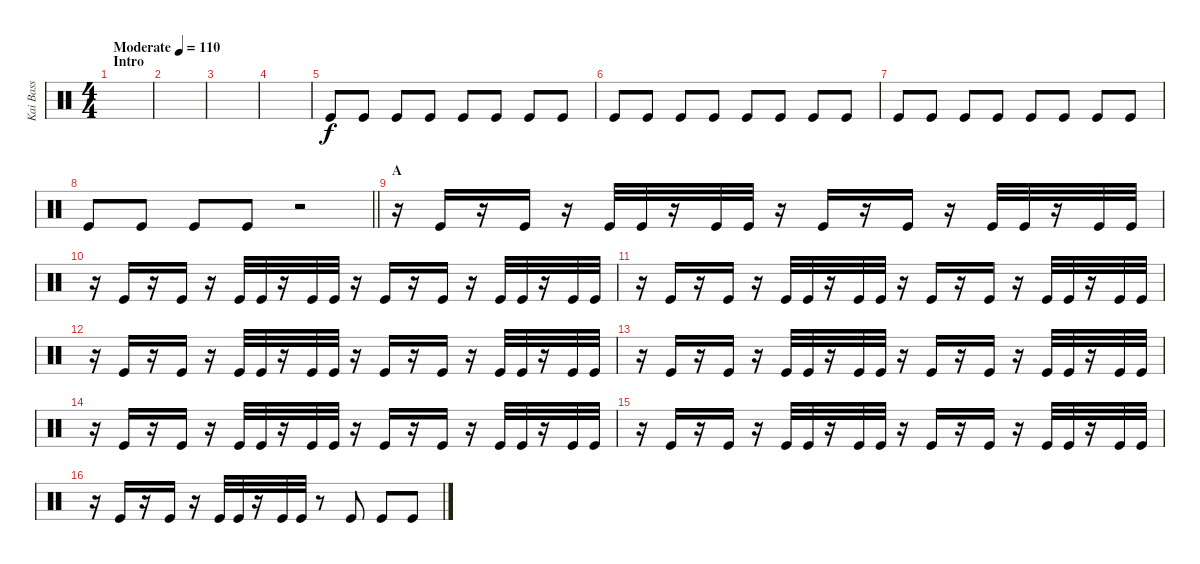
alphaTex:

\track ("Kai Bass" "Kai Bass") {instrument percussion}
\staff {score}
\articulation defaults
\ts (4 4)
\section ("" "Intro")
\tempo (110 "Moderate")
\clef neutral
\ks c
|
|
|
|
"Kick (hit)".8 "Kick (hit)".8 "Kick (hit)".8 "Kick (hit)".8 "Kick (hit)".8 "Kick (hit)".8 "Kick (hit)".8 "Kick (hit)".8 |
"Kick (hit)".8 "Kick (hit)".8 "Kick (hit)".8 "Kick (hit)".8 "Kick (hit)".8 "Kick (hit)".8 "Kick (hit)".8 "Kick (hit)".8 |
"Kick (hit)".8 "Kick (hit)".8 "Kick (hit)".8 "Kick (hit)".8 "Kick (hit)".8 "Kick (hit)".8 "Kick (hit)".8 "Kick (hit)".8 |
\barLineRight lightlight "Kick (hit)".8 "Kick (hit)".8 "Kick (hit)".8 "Kick (hit)".8
r.2 |
\section ("" "A")
r.16 "Kick (hit)".16 r.16 "Kick (hit)".16 r.16 "Kick (hit)".32 "Kick (hit)".32 r.16 "Kick (hit)".32 "Kick (hit)".32 r.16 "Kick (hit)".16 r.16 "Kick (hit)".16 r.16 "Kick (hit)".32 "Kick (hit)".32 r.16 "Kick (hit)".32 "Kick (hit)".32 |
r.16 "Kick (hit)".16 r.16 "Kick (hit)".16 r.16 "Kick (hit)".32 "Kick (hit)".32 r.16 "Kick (hit)".32 "Kick (hit)".32 r.16 "Kick (hit)".16 r.16 "Kick (hit)".16 r.16 "Kick (hit)".32 "Kick (hit)".32 r.16 "Kick (hit)".32 "Kick (hit)".32 |
r.16 "Kick (hit)".16 r.16 "Kick (hit)".16 r.16 "Kick (hit)".32 "Kick (hit)".32 r.16 "Kick (hit)".32 "Kick (hit)".32 r.16 "Kick (hit)".16 r.16 "Kick (hit)".16 r.16 "Kick (hit)".32 "Kick (hit)".32 r.16 "Kick (hit)".32 "Kick (hit)".32 |
r.16 "Kick (hit)".16 r.16 "Kick (hit)".16 r.16 "Kick (hit)".32 "Kick (hit)".32 r.16 "Kick (hit)".32 "Kick (hit)".32 r.16 "Kick (hit)".16 r.16 "Kick (hit)".16 r.16 "Kick (hit)".32 "Kick (hit)".32 r.16 "Kick (hit)".32 "Kick (hit)".32 |
r.16 "Kick (hit)".16 r.16 "Kick (hit)".16 r.16 "Kick (hit)".32 "Kick (hit)".32 r.16 "Kick (hit)".32 "Kick (hit)".32 r.16 "Kick (hit)".16 r.16 "Kick (hit)".16 r.16 "Kick (hit)".32 "Kick (hit)".32 r.16 "Kick (hit)".32 "Kick (hit)".32 |
r.16 "Kick (hit)".16 r.16 "Kick (hit)".16 r.16 "Kick (hit)".32 "Kick (hit)".32 r.16 "Kick (hit)".32 "Kick (hit)".32 r.16 "Kick (hit)".16 r.16 "Kick (hit)".16 r.16 "Kick (hit)".32 "Kick (hit)".32 r.16 "Kick (hit)".32 "Kick (hit)".32 |
r.16 "Kick (hit)".16 r.16 "Kick (hit)".16 r.16 "Kick (hit)".32 "Kick (hit)".32 r.16 "Kick (hit)".32 "Kick (hit)".32 r.16 "Kick (hit)".16 r.16 "Kick (hit)".16 r.16 "Kick (hit)".32 "Kick (hit)".32 r.16 "Kick (hit)".32 "Kick (hit)".32 |
r.16 "Kick (hit)".16 r.16 "Kick (hit)".16 r.16 "Kick (hit)".32 "Kick (hit)".32 r.16 "Kick (hit)".32 "Kick (hit)".32 r.8 "Kick (hit)".8 "Kick (hit)".8 "Kick (hit)".8
